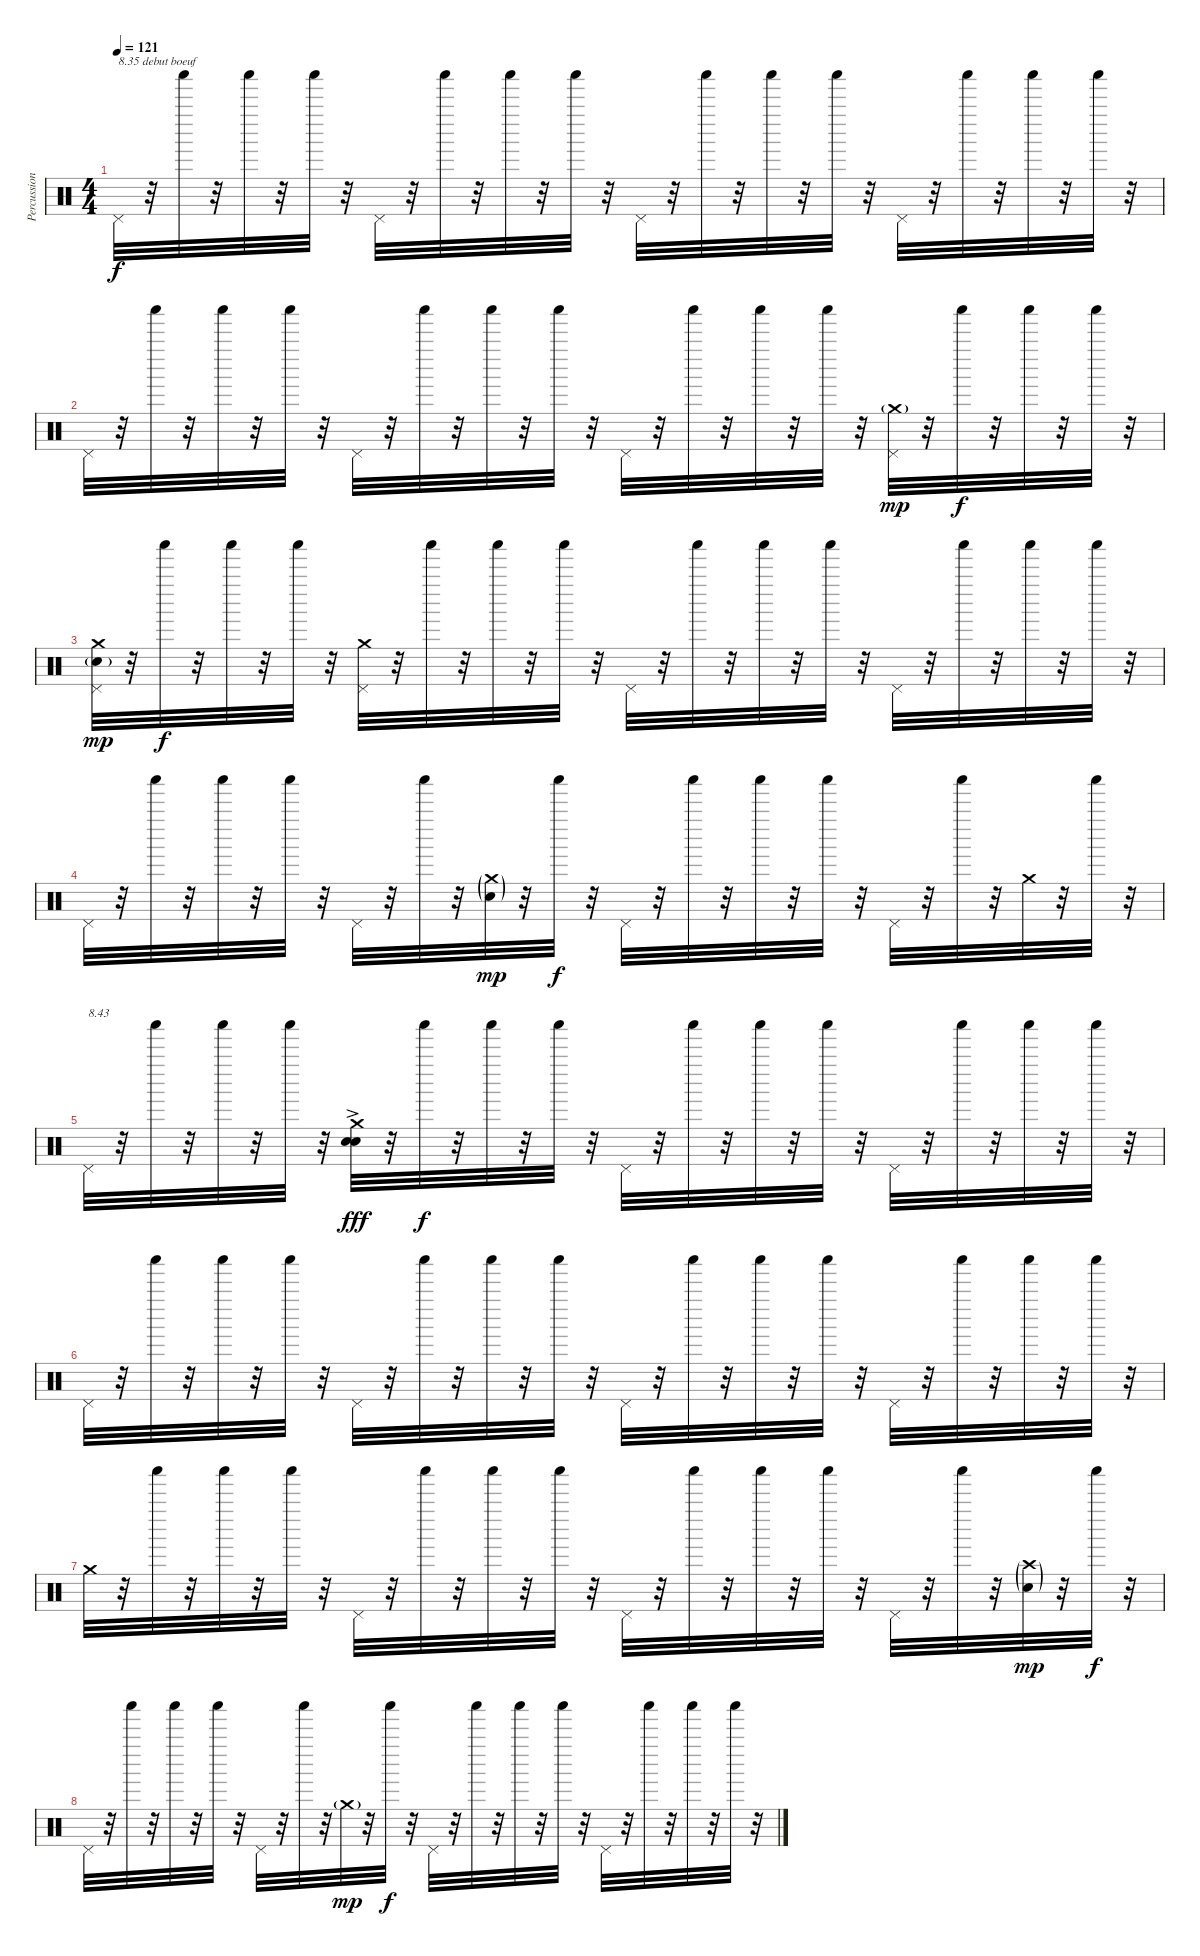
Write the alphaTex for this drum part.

\track ("Percussions" "Percussion") {instrument percussion}
\staff {score}
\articulation defaults
\ts (4 4)
\tempo 121
\clef neutral
\ks c "Pedal Hi-Hat (hit)".32{txt "8.35 debut boeuf" dy f}
r.32 "Shaker (hit)".32 r.32 "Shaker (hit)".32 r.32 "Shaker (hit)".32 r.32 "Pedal Hi-Hat (hit)".32 r.32 "Shaker (hit)".32 r.32 "Shaker (hit)".32 r.32 "Shaker (hit)".32 r.32 "Pedal Hi-Hat (hit)".32 r.32 "Shaker (hit)".32 r.32 "Shaker (hit)".32 r.32 "Shaker (hit)".32 r.32 "Pedal Hi-Hat (hit)".32 r.32 "Shaker (hit)".32 r.32 "Shaker (hit)".32 r.32 "Shaker (hit)".32 r.32 |
"Pedal Hi-Hat (hit)".32 r.32 "Shaker (hit)".32 r.32 "Shaker (hit)".32 r.32 "Shaker (hit)".32 r.32 "Pedal Hi-Hat (hit)".32 r.32 "Shaker (hit)".32 r.32 "Shaker (hit)".32 r.32 "Shaker (hit)".32 r.32 "Pedal Hi-Hat (hit)".32 r.32 "Shaker (hit)".32 r.32 "Shaker (hit)".32 r.32 "Shaker (hit)".32 r.32 ("Pedal Hi-Hat (hit)" "Crash medium (hit)"{g}).32{dy mp} r.32 "Shaker (hit)".32{dy f} r.32 "Shaker (hit)".32 r.32 "Shaker (hit)".32 r.32 |
("Pedal Hi-Hat (hit)" "Crash medium (hit)" "Electric Snare (hit)"{g}).32{dy mp} r.32 "Shaker (hit)".32{dy f} r.32 "Shaker (hit)".32 r.32 "Shaker (hit)".32 r.32 ("Pedal Hi-Hat (hit)" "Crash medium (hit)").32 r.32 "Shaker (hit)".32 r.32 "Shaker (hit)".32 r.32 "Shaker (hit)".32 r.32 "Pedal Hi-Hat (hit)".32 r.32 "Shaker (hit)".32 r.32 "Shaker (hit)".32 r.32 "Shaker (hit)".32 r.32 "Pedal Hi-Hat (hit)".32 r.32 "Shaker (hit)".32 r.32 "Shaker (hit)".32 r.32 "Shaker (hit)".32 r.32 |
"Pedal Hi-Hat (hit)".32 r.32 "Shaker (hit)".32 r.32 "Shaker (hit)".32 r.32 "Shaker (hit)".32 r.32 "Pedal Hi-Hat (hit)".32 r.32 "Shaker (hit)".32 r.32 ("Crash medium (hit)"{g} "Electric Snare (hit)"{g}).32{dy mp} r.32 "Shaker (hit)".32{dy f} r.32 "Pedal Hi-Hat (hit)".32 r.32 "Shaker (hit)".32 r.32 "Shaker (hit)".32 r.32 "Shaker (hit)".32 r.32 "Pedal Hi-Hat (hit)".32 r.32 "Shaker (hit)".32 r.32 "Crash medium (hit)".32 r.32 "Shaker (hit)".32 r.32 |
"Pedal Hi-Hat (hit)".32{txt "8.43"} r.32 "Shaker (hit)".32 r.32 "Shaker (hit)".32 r.32 "Shaker (hit)".32 r.32 ("Crash medium (hit)" "Electric Snare (hit)" "Metronome (bell)"{ac}).32{dy fff} r.32 "Shaker (hit)".32{dy f} r.32 "Shaker (hit)".32 r.32 "Shaker (hit)".32 r.32 "Pedal Hi-Hat (hit)".32 r.32 "Shaker (hit)".32 r.32 "Shaker (hit)".32 r.32 "Shaker (hit)".32 r.32 "Pedal Hi-Hat (hit)".32 r.32 "Shaker (hit)".32 r.32 "Shaker (hit)".32 r.32 "Shaker (hit)".32 r.32 |
"Pedal Hi-Hat (hit)".32 r.32 "Shaker (hit)".32 r.32 "Shaker (hit)".32 r.32 "Shaker (hit)".32 r.32 "Pedal Hi-Hat (hit)".32 r.32 "Shaker (hit)".32 r.32 "Shaker (hit)".32 r.32 "Shaker (hit)".32 r.32 "Pedal Hi-Hat (hit)".32 r.32 "Shaker (hit)".32 r.32 "Shaker (hit)".32 r.32 "Shaker (hit)".32 r.32 "Pedal Hi-Hat (hit)".32 r.32 "Shaker (hit)".32 r.32 "Shaker (hit)".32 r.32 "Shaker (hit)".32 r.32 |
"Crash medium (hit)".32 r.32 "Shaker (hit)".32 r.32 "Shaker (hit)".32 r.32 "Shaker (hit)".32 r.32 "Pedal Hi-Hat (hit)".32 r.32 "Shaker (hit)".32 r.32 "Shaker (hit)".32 r.32 "Shaker (hit)".32 r.32 "Pedal Hi-Hat (hit)".32 r.32 "Shaker (hit)".32 r.32 "Shaker (hit)".32 r.32 "Shaker (hit)".32 r.32 "Pedal Hi-Hat (hit)".32 r.32 "Shaker (hit)".32 r.32 ("Electric Snare (hit)"{g} "Crash high (hit)"{g}).32{dy mp} r.32 "Shaker (hit)".32{dy f} r.32 |
"Pedal Hi-Hat (hit)".32 r.32 "Shaker (hit)".32 r.32 "Shaker (hit)".32 r.32 "Shaker (hit)".32 r.32 "Pedal Hi-Hat (hit)".32 r.32 "Shaker (hit)".32 r.32 "Crash medium (hit)"{g}.32{dy mp} r.32 "Shaker (hit)".32{dy f} r.32 "Pedal Hi-Hat (hit)".32 r.32 "Shaker (hit)".32 r.32 "Shaker (hit)".32 r.32 "Shaker (hit)".32 r.32 "Pedal Hi-Hat (hit)".32 r.32 "Shaker (hit)".32 r.32 "Shaker (hit)".32 r.32 "Shaker (hit)".32 r.32
